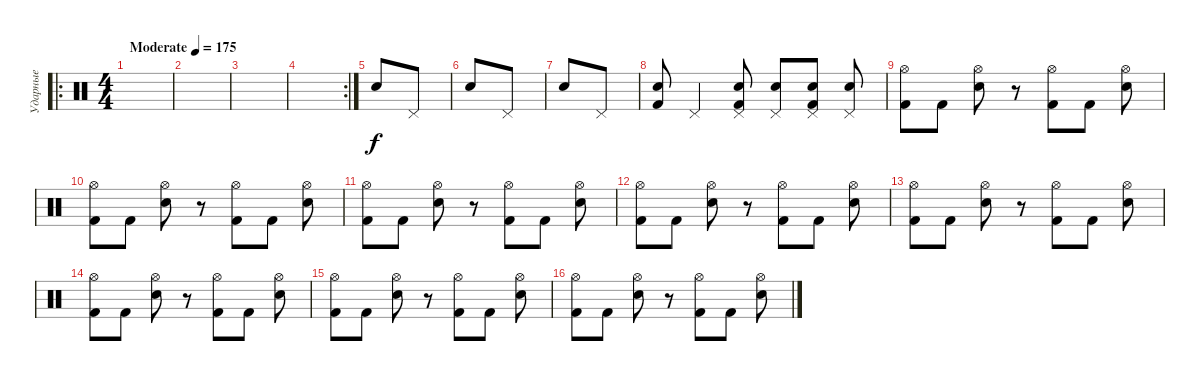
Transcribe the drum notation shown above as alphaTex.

\track ("Ударные" "Ударные") {instrument percussion}
\staff {score}
\articulation defaults
\ro
\ts (4 4)
\tempo (175 "Moderate")
\clef neutral
\ks c
|
|
|
\rc 2
|
"Electric Snare (hit)".8 "Pedal Hi-Hat (hit)".8 |
"Electric Snare (hit)".8 "Pedal Hi-Hat (hit)".8 |
"Electric Snare (hit)".8 "Pedal Hi-Hat (hit)".8 |
("Kick (hit) 2" "Electric Snare (hit)").8 "Pedal Hi-Hat (hit)".4 ("Kick (hit) 2" "Pedal Hi-Hat (hit)" "Electric Snare (hit)").8 ("Pedal Hi-Hat (hit)" "Electric Snare (hit)").8 ("Kick (hit) 2" "Pedal Hi-Hat (hit)" "Electric Snare (hit)").8 ("Pedal Hi-Hat (hit)" "Electric Snare (hit)").8 |
("Kick (hit) 2" "Hi-Hat (open)").8 "Kick (hit) 2".8 ("Electric Snare (hit)" "Hi-Hat (open)").8 r.8 ("Kick (hit) 2" "Hi-Hat (open)").8 "Kick (hit) 2".8 ("Electric Snare (hit)" "Hi-Hat (open)").8 |
("Kick (hit) 2" "Hi-Hat (open)").8 "Kick (hit) 2".8 ("Electric Snare (hit)" "Hi-Hat (open)").8 r.8 ("Kick (hit) 2" "Hi-Hat (open)").8 "Kick (hit) 2".8 ("Electric Snare (hit)" "Hi-Hat (open)").8 |
("Kick (hit) 2" "Hi-Hat (open)").8 "Kick (hit) 2".8 ("Electric Snare (hit)" "Hi-Hat (open)").8 r.8 ("Kick (hit) 2" "Hi-Hat (open)").8 "Kick (hit) 2".8 ("Electric Snare (hit)" "Hi-Hat (open)").8 |
("Kick (hit) 2" "Hi-Hat (open)").8 "Kick (hit) 2".8 ("Electric Snare (hit)" "Hi-Hat (open)").8 r.8 ("Kick (hit) 2" "Hi-Hat (open)").8 "Kick (hit) 2".8 ("Electric Snare (hit)" "Hi-Hat (open)").8 |
("Kick (hit) 2" "Hi-Hat (open)").8 "Kick (hit) 2".8 ("Electric Snare (hit)" "Hi-Hat (open)").8 r.8 ("Kick (hit) 2" "Hi-Hat (open)").8 "Kick (hit) 2".8 ("Electric Snare (hit)" "Hi-Hat (open)").8 |
("Kick (hit) 2" "Hi-Hat (open)").8 "Kick (hit) 2".8 ("Electric Snare (hit)" "Hi-Hat (open)").8 r.8 ("Kick (hit) 2" "Hi-Hat (open)").8 "Kick (hit) 2".8 ("Electric Snare (hit)" "Hi-Hat (open)").8 |
("Kick (hit) 2" "Hi-Hat (open)").8 "Kick (hit) 2".8 ("Electric Snare (hit)" "Hi-Hat (open)").8 r.8 ("Kick (hit) 2" "Hi-Hat (open)").8 "Kick (hit) 2".8 ("Electric Snare (hit)" "Hi-Hat (open)").8 |
("Kick (hit) 2" "Hi-Hat (open)").8 "Kick (hit) 2".8 ("Electric Snare (hit)" "Hi-Hat (open)").8 r.8 ("Kick (hit) 2" "Hi-Hat (open)").8 "Kick (hit) 2".8 ("Electric Snare (hit)" "Hi-Hat (open)").8
